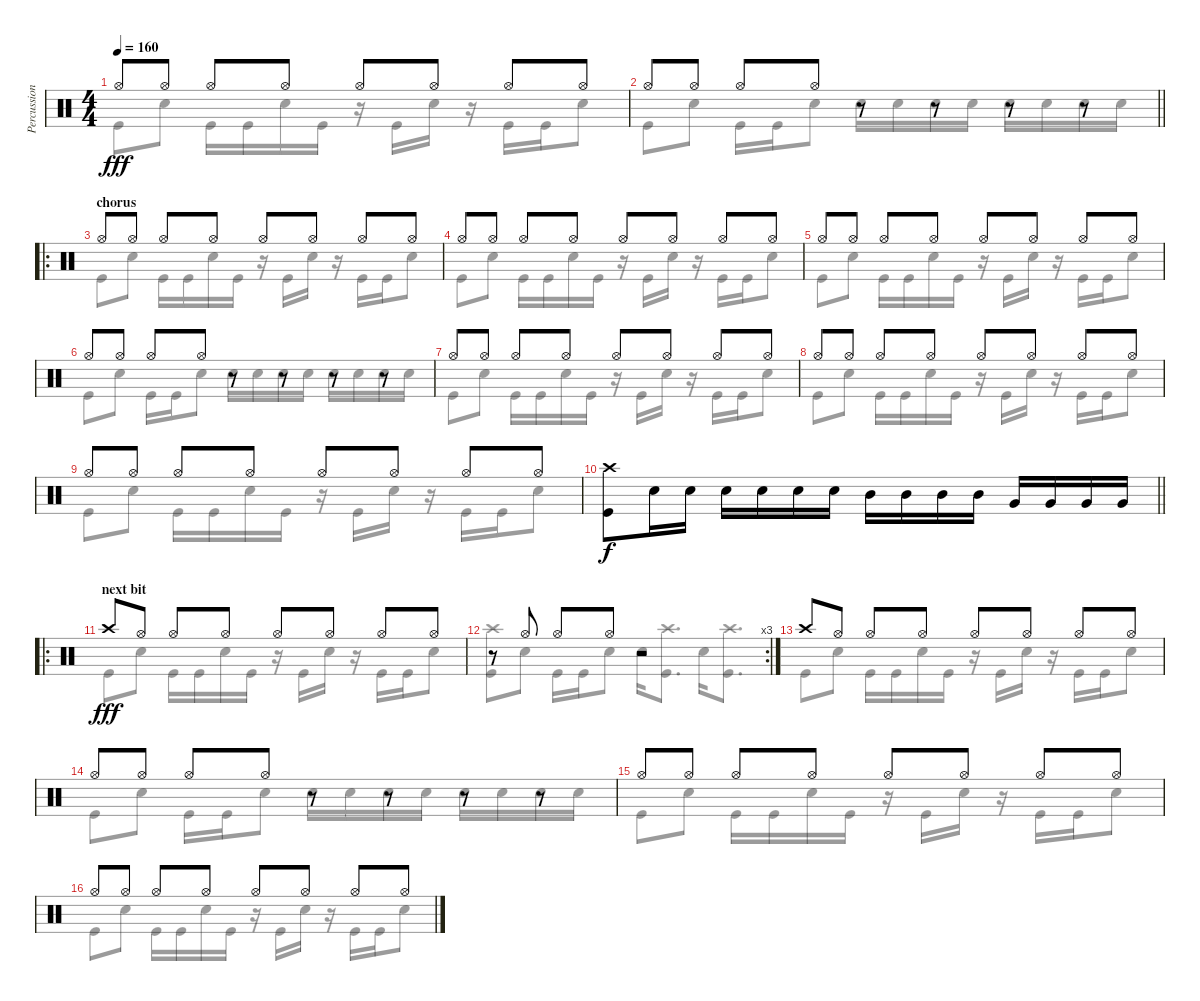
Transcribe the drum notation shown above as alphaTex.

\track ("Percussion" "Percussion") {instrument percussion}
\staff {score}
\articulation defaults
\voice
\ts (4 4)
\tempo 160
\clef neutral
\ks c "Hi-Hat (open)".8{dy fff} "Hi-Hat (open)".8 "Hi-Hat (open)".8 "Hi-Hat (open)".8 "Hi-Hat (open)".8 "Hi-Hat (open)".8 "Hi-Hat (open)".8 "Hi-Hat (open)".8
|
\barLineRight lightlight "Hi-Hat (open)".8 "Hi-Hat (open)".8 "Hi-Hat (open)".8 "Hi-Hat (open)".8
r.8 r.8 r.8 r.8 |
\ro
\section ("" "chorus")
"Hi-Hat (open)".8 "Hi-Hat (open)".8 "Hi-Hat (open)".8 "Hi-Hat (open)".8 "Hi-Hat (open)".8 "Hi-Hat (open)".8 "Hi-Hat (open)".8 "Hi-Hat (open)".8 |
"Hi-Hat (open)".8 "Hi-Hat (open)".8 "Hi-Hat (open)".8 "Hi-Hat (open)".8 "Hi-Hat (open)".8 "Hi-Hat (open)".8 "Hi-Hat (open)".8 "Hi-Hat (open)".8 |
"Hi-Hat (open)".8 "Hi-Hat (open)".8 "Hi-Hat (open)".8 "Hi-Hat (open)".8 "Hi-Hat (open)".8 "Hi-Hat (open)".8 "Hi-Hat (open)".8 "Hi-Hat (open)".8 |
"Hi-Hat (open)".8 "Hi-Hat (open)".8 "Hi-Hat (open)".8 "Hi-Hat (open)".8 r.8 r.8 r.8 r.8 |
"Hi-Hat (open)".8 "Hi-Hat (open)".8 "Hi-Hat (open)".8 "Hi-Hat (open)".8 "Hi-Hat (open)".8 "Hi-Hat (open)".8 "Hi-Hat (open)".8 "Hi-Hat (open)".8 |
"Hi-Hat (open)".8 "Hi-Hat (open)".8 "Hi-Hat (open)".8 "Hi-Hat (open)".8 "Hi-Hat (open)".8 "Hi-Hat (open)".8 "Hi-Hat (open)".8 "Hi-Hat (open)".8 |
"Hi-Hat (open)".8 "Hi-Hat (open)".8 "Hi-Hat (open)".8 "Hi-Hat (open)".8 "Hi-Hat (open)".8 "Hi-Hat (open)".8 "Hi-Hat (open)".8 "Hi-Hat (open)".8 |
\barLineRight lightlight
("Crash high (hit)" "Kick (hit)").8{dy f} "Snare (hit) 2".16 "Snare (hit) 2".16 "Snare (hit) 2".16 "Snare (hit) 2".16 "Snare (hit) 2".16 "Snare (hit) 2".16 "Mid Tom (hit)".16 "Mid Tom (hit)".16 "Mid Tom (hit)".16 "Mid Tom (hit)".16 "Very Low Tom (hit)".16 "Very Low Tom (hit)".16 "Very Low Tom (hit)".16 "Very Low Tom (hit)".16 |
\ro
\section ("" "next bit")
"Crash high (hit)".8{dy fff} "Hi-Hat (open)".8 "Hi-Hat (open)".8 "Hi-Hat (open)".8 "Hi-Hat (open)".8 "Hi-Hat (open)".8 "Hi-Hat (open)".8 "Hi-Hat (open)".8 |
\rc 3
r.8 "Hi-Hat (open)".8 "Hi-Hat (open)".8 "Hi-Hat (open)".8 r.2 |
"Crash high (hit)".8 "Hi-Hat (open)".8 "Hi-Hat (open)".8 "Hi-Hat (open)".8 "Hi-Hat (open)".8 "Hi-Hat (open)".8 "Hi-Hat (open)".8 "Hi-Hat (open)".8 |
"Hi-Hat (open)".8 "Hi-Hat (open)".8 "Hi-Hat (open)".8 "Hi-Hat (open)".8 r.8 r.8 r.8 r.8 |
"Hi-Hat (open)".8 "Hi-Hat (open)".8 "Hi-Hat (open)".8 "Hi-Hat (open)".8 "Hi-Hat (open)".8 "Hi-Hat (open)".8 "Hi-Hat (open)".8 "Hi-Hat (open)".8 |
"Hi-Hat (open)".8 "Hi-Hat (open)".8 "Hi-Hat (open)".8 "Hi-Hat (open)".8 "Hi-Hat (open)".8 "Hi-Hat (open)".8 "Hi-Hat (open)".8 "Hi-Hat (open)".8
\voice
\clef neutral
\ottava regular
\simile none
\ks c "Kick (hit)".8{dy fff} "Snare (hit) 2".8 "Kick (hit)".16 "Kick (hit)".16 "Snare (hit) 2".16 "Kick (hit)".16
r.16 "Kick (hit)".16 "Snare (hit) 2".16 r.16 "Kick (hit)".16 "Kick (hit)".16 "Snare (hit) 2".8 |
\barLineRight lightlight "Kick (hit)".8 "Snare (hit) 2".8 "Kick (hit)".16 "Kick (hit)".16 "Snare (hit) 2".8 "Snare (hit) 2".16 "Snare (hit) 2".16 "Snare (hit) 2".16 "Snare (hit) 2".16 "Snare (hit) 2".16 "Snare (hit) 2".16 "Snare (hit) 2".16 "Snare (hit) 2".16
|
"Kick (hit)".8 "Snare (hit) 2".8 "Kick (hit)".16 "Kick (hit)".16 "Snare (hit) 2".16 "Kick (hit)".16 r.16 "Kick (hit)".16 "Snare (hit) 2".16 r.16 "Kick (hit)".16 "Kick (hit)".16 "Snare (hit) 2".8 |
"Kick (hit)".8 "Snare (hit) 2".8 "Kick (hit)".16 "Kick (hit)".16 "Snare (hit) 2".16 "Kick (hit)".16 r.16 "Kick (hit)".16 "Snare (hit) 2".16 r.16 "Kick (hit)".16 "Kick (hit)".16 "Snare (hit) 2".8 |
"Kick (hit)".8 "Snare (hit) 2".8 "Kick (hit)".16 "Kick (hit)".16 "Snare (hit) 2".16 "Kick (hit)".16 r.16 "Kick (hit)".16 "Snare (hit) 2".16 r.16 "Kick (hit)".16 "Kick (hit)".16 "Snare (hit) 2".8 |
"Kick (hit)".8 "Snare (hit) 2".8 "Kick (hit)".16 "Kick (hit)".16 "Snare (hit) 2".8 "Snare (hit) 2".16 "Snare (hit) 2".16 "Snare (hit) 2".16 "Snare (hit) 2".16 "Snare (hit) 2".16 "Snare (hit) 2".16 "Snare (hit) 2".16 "Snare (hit) 2".16 |
"Kick (hit)".8 "Snare (hit) 2".8 "Kick (hit)".16 "Kick (hit)".16 "Snare (hit) 2".16 "Kick (hit)".16 r.16 "Kick (hit)".16 "Snare (hit) 2".16 r.16 "Kick (hit)".16 "Kick (hit)".16 "Snare (hit) 2".8 |
"Kick (hit)".8 "Snare (hit) 2".8 "Kick (hit)".16 "Kick (hit)".16 "Snare (hit) 2".16 "Kick (hit)".16 r.16 "Kick (hit)".16 "Snare (hit) 2".16 r.16 "Kick (hit)".16 "Kick (hit)".16 "Snare (hit) 2".8 |
"Kick (hit)".8 "Snare (hit) 2".8 "Kick (hit)".16 "Kick (hit)".16 "Snare (hit) 2".16 "Kick (hit)".16 r.16 "Kick (hit)".16 "Snare (hit) 2".16 r.16 "Kick (hit)".16 "Kick (hit)".16 "Snare (hit) 2".8 |
\barLineRight lightlight
|
"Kick (hit)".8 "Snare (hit) 2".8 "Kick (hit)".16 "Kick (hit)".16 "Snare (hit) 2".16 "Kick (hit)".16 r.16 "Kick (hit)".16 "Snare (hit) 2".16 r.16 "Kick (hit)".16 "Kick (hit)".16 "Snare (hit) 2".8 |
("Crash high (hit)" "Kick (hit)").8 "Snare (hit) 2".8 "Kick (hit)".16 "Kick (hit)".16 "Snare (hit) 2".8 "Snare (hit) 2".16 ("Crash high (hit)" "Kick (hit)").8{d} "Snare (hit) 2".16 ("Crash high (hit)" "Kick (hit)").8{d} |
"Kick (hit)".8 "Snare (hit) 2".8 "Kick (hit)".16 "Kick (hit)".16 "Snare (hit) 2".16 "Kick (hit)".16 r.16 "Kick (hit)".16 "Snare (hit) 2".16 r.16 "Kick (hit)".16 "Kick (hit)".16 "Snare (hit) 2".8 |
"Kick (hit)".8 "Snare (hit) 2".8 "Kick (hit)".16 "Kick (hit)".16 "Snare (hit) 2".8 "Snare (hit) 2".16 "Snare (hit) 2".16 "Snare (hit) 2".16 "Snare (hit) 2".16 "Snare (hit) 2".16 "Snare (hit) 2".16 "Snare (hit) 2".16 "Snare (hit) 2".16 |
"Kick (hit)".8 "Snare (hit) 2".8 "Kick (hit)".16 "Kick (hit)".16 "Snare (hit) 2".16 "Kick (hit)".16 r.16 "Kick (hit)".16 "Snare (hit) 2".16 r.16 "Kick (hit)".16 "Kick (hit)".16 "Snare (hit) 2".8 |
"Kick (hit)".8 "Snare (hit) 2".8 "Kick (hit)".16 "Kick (hit)".16 "Snare (hit) 2".16 "Kick (hit)".16 r.16 "Kick (hit)".16 "Snare (hit) 2".16 r.16 "Kick (hit)".16 "Kick (hit)".16 "Snare (hit) 2".8
